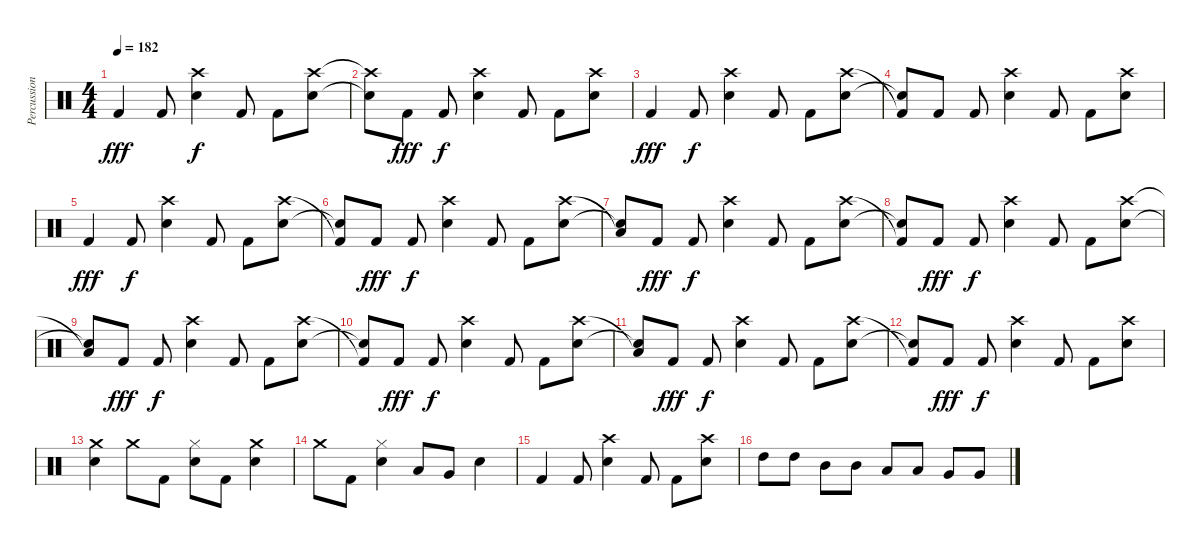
\track ("Percussion" "Percussion") {instrument percussion}
\staff {score}
\articulation defaults
\ts (4 4)
\tempo 182
\clef neutral
\ks c "Kick (hit) 2".4{dy fff} "Kick (hit) 2".8
("Crash high (hit)" "Snare (hit) 2").4{dy f} "Kick (hit) 2".8 "Kick (hit) 2".8 ("Crash high (hit)" "Snare (hit) 2").8 |
("Crash high (hit)"{t} "Snare (hit) 2"{t}).8 "Kick (hit) 2".8{dy fff} "Kick (hit) 2".8{dy f} ("Crash high (hit)" "Snare (hit) 2").4 "Kick (hit) 2".8 "Kick (hit) 2".8 ("Crash high (hit)" "Snare (hit) 2").8 |
"Kick (hit) 2".4{dy fff} "Kick (hit) 2".8{dy f} ("Crash high (hit)" "Snare (hit) 2").4 "Kick (hit) 2".8 "Kick (hit) 2".8 ("Crash high (hit)" "Snare (hit) 2").8 |
("Kick (hit) 2"{t} "Snare (hit)"{t}).8 "Kick (hit) 2".8 "Kick (hit) 2".8 ("Crash high (hit)" "Snare (hit) 2").4 "Kick (hit) 2".8 "Kick (hit) 2".8 ("Crash high (hit)" "Snare (hit) 2").8 |
"Kick (hit) 2".4{dy fff} "Kick (hit) 2".8{dy f} ("Crash high (hit)" "Snare (hit) 2").4 "Kick (hit) 2".8 "Kick (hit) 2".8 ("Crash high (hit)" "Snare (hit) 2").8 |
("Kick (hit) 2"{t} "Snare (hit)"{t}).8 "Kick (hit) 2".8{dy fff} "Kick (hit) 2".8{dy f} ("Crash high (hit)" "Snare (hit) 2").4 "Kick (hit) 2".8 "Kick (hit) 2".8 ("Crash high (hit)" "Snare (hit) 2").8 |
("Low Floor Tom (hit)"{t} "Snare (hit)"{t}).8 "Kick (hit) 2".8{dy fff} "Kick (hit) 2".8{dy f} ("Crash high (hit)" "Snare (hit) 2").4 "Kick (hit) 2".8 "Kick (hit) 2".8 ("Crash high (hit)" "Snare (hit) 2").8 |
("Kick (hit) 2"{t} "Snare (hit)"{t}).8 "Kick (hit) 2".8{dy fff} "Kick (hit) 2".8{dy f} ("Crash high (hit)" "Snare (hit) 2").4 "Kick (hit) 2".8 "Kick (hit) 2".8 ("Crash high (hit)" "Snare (hit) 2").8 |
("Low Floor Tom (hit)"{t} "Snare (hit)"{t}).8 "Kick (hit) 2".8{dy fff} "Kick (hit) 2".8{dy f} ("Crash high (hit)" "Snare (hit) 2").4 "Kick (hit) 2".8 "Kick (hit) 2".8 ("Crash high (hit)" "Snare (hit) 2").8 |
("Kick (hit) 2"{t} "Snare (hit)"{t}).8 "Kick (hit) 2".8{dy fff} "Kick (hit) 2".8{dy f} ("Crash high (hit)" "Snare (hit) 2").4 "Kick (hit) 2".8 "Kick (hit) 2".8 ("Crash high (hit)" "Snare (hit) 2").8 |
("Low Floor Tom (hit)"{t} "Snare (hit)"{t}).8 "Kick (hit) 2".8{dy fff} "Kick (hit) 2".8{dy f} ("Crash high (hit)" "Snare (hit) 2").4 "Kick (hit) 2".8 "Kick (hit) 2".8 ("Crash high (hit)" "Snare (hit) 2").8 |
("Kick (hit) 2"{t} "Snare (hit)"{t}).8 "Kick (hit) 2".8{dy fff} "Kick (hit) 2".8{dy f} ("Crash high (hit)" "Snare (hit) 2").4 "Kick (hit) 2".8 "Kick (hit) 2".8 ("Crash high (hit)" "Snare (hit) 2").8 |
("Crash medium (hit)" "Snare (hit) 2").4 "Crash medium (hit)".8 "Kick (hit) 2".8 ("Snare (hit) 2" "Hi-Hat (closed)").8 "Kick (hit) 2".8 ("Crash medium (hit)" "Snare (hit) 2").4 |
"Crash medium (hit)".8 "Kick (hit) 2".8 ("Snare (hit) 2" "Hi-Hat (closed)").4 "Low Tom (hit)".8 "Very Low Tom (hit)".8 "Snare (hit) 2".4 |
"Kick (hit) 2".4 "Kick (hit) 2".8 ("Crash high (hit)" "Snare (hit) 2").4 "Kick (hit) 2".8 "Kick (hit) 2".8 ("Crash high (hit)" "Snare (hit) 2").8 |
"High Tom (hit)".8 "High Tom (hit)".8 "Mid Tom (hit)".8 "Mid Tom (hit)".8 "Low Tom (hit)".8 "Low Tom (hit)".8 "Very Low Tom (hit)".8 "Very Low Tom (hit)".8
